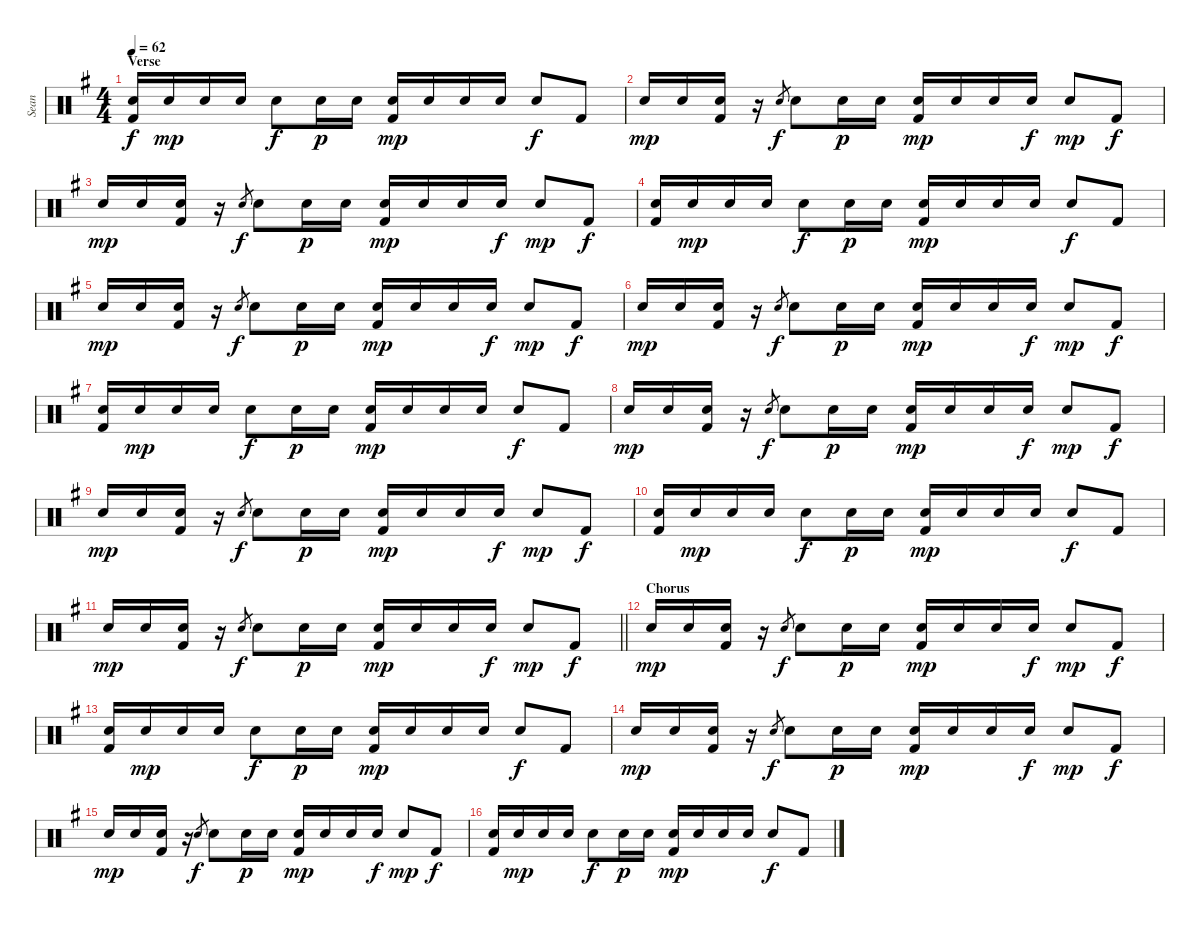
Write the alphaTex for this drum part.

\track ("Sean" "Sean") {instrument percussion}
\staff {score}
\articulation defaults
\ts (4 4)
\section ("" "Verse")
\tempo 62
\clef neutral
\ks eminor
("Electric Snare (hit)" "Kick (hit) 2").16{dy f} "Electric Snare (hit)".16{dy mp} "Electric Snare (hit)".16 "Electric Snare (hit)".16 "Electric Snare (hit)".8{dy f} "Electric Snare (hit)".16{dy p} "Electric Snare (hit)".16 ("Electric Snare (hit)" "Kick (hit) 2").16{dy mp} "Electric Snare (hit)".16 "Electric Snare (hit)".16 "Electric Snare (hit)".16 "Electric Snare (hit)".8{dy f} "Kick (hit) 2".8 |
"Electric Snare (hit)".16{dy mp} "Electric Snare (hit)".16 ("Electric Snare (hit)" "Kick (hit) 2").16 r.16 "Electric Snare (hit)".8{gr dy f} "Electric Snare (hit)".8 "Electric Snare (hit)".16{dy p} "Electric Snare (hit)".16 ("Electric Snare (hit)" "Kick (hit) 2").16{dy mp} "Electric Snare (hit)".16 "Electric Snare (hit)".16 "Electric Snare (hit)".16{dy f} "Electric Snare (hit)".8{dy mp} "Kick (hit) 2".8{dy f} |
"Electric Snare (hit)".16{dy mp} "Electric Snare (hit)".16 ("Electric Snare (hit)" "Kick (hit) 2").16 r.16 "Electric Snare (hit)".8{gr dy f} "Electric Snare (hit)".8 "Electric Snare (hit)".16{dy p} "Electric Snare (hit)".16 ("Electric Snare (hit)" "Kick (hit) 2").16{dy mp} "Electric Snare (hit)".16 "Electric Snare (hit)".16 "Electric Snare (hit)".16{dy f} "Electric Snare (hit)".8{dy mp} "Kick (hit) 2".8{dy f} |
("Electric Snare (hit)" "Kick (hit) 2").16 "Electric Snare (hit)".16{dy mp} "Electric Snare (hit)".16 "Electric Snare (hit)".16 "Electric Snare (hit)".8{dy f} "Electric Snare (hit)".16{dy p} "Electric Snare (hit)".16 ("Electric Snare (hit)" "Kick (hit) 2").16{dy mp} "Electric Snare (hit)".16 "Electric Snare (hit)".16 "Electric Snare (hit)".16 "Electric Snare (hit)".8{dy f} "Kick (hit) 2".8 |
"Electric Snare (hit)".16{dy mp} "Electric Snare (hit)".16 ("Electric Snare (hit)" "Kick (hit) 2").16 r.16 "Electric Snare (hit)".8{gr dy f} "Electric Snare (hit)".8 "Electric Snare (hit)".16{dy p} "Electric Snare (hit)".16 ("Electric Snare (hit)" "Kick (hit) 2").16{dy mp} "Electric Snare (hit)".16 "Electric Snare (hit)".16 "Electric Snare (hit)".16{dy f} "Electric Snare (hit)".8{dy mp} "Kick (hit) 2".8{dy f} |
"Electric Snare (hit)".16{dy mp} "Electric Snare (hit)".16 ("Electric Snare (hit)" "Kick (hit) 2").16 r.16 "Electric Snare (hit)".8{gr dy f} "Electric Snare (hit)".8 "Electric Snare (hit)".16{dy p} "Electric Snare (hit)".16 ("Electric Snare (hit)" "Kick (hit) 2").16{dy mp} "Electric Snare (hit)".16 "Electric Snare (hit)".16 "Electric Snare (hit)".16{dy f} "Electric Snare (hit)".8{dy mp} "Kick (hit) 2".8{dy f} |
("Electric Snare (hit)" "Kick (hit) 2").16 "Electric Snare (hit)".16{dy mp} "Electric Snare (hit)".16 "Electric Snare (hit)".16 "Electric Snare (hit)".8{dy f} "Electric Snare (hit)".16{dy p} "Electric Snare (hit)".16 ("Electric Snare (hit)" "Kick (hit) 2").16{dy mp} "Electric Snare (hit)".16 "Electric Snare (hit)".16 "Electric Snare (hit)".16 "Electric Snare (hit)".8{dy f} "Kick (hit) 2".8 |
"Electric Snare (hit)".16{dy mp} "Electric Snare (hit)".16 ("Electric Snare (hit)" "Kick (hit) 2").16 r.16 "Electric Snare (hit)".8{gr dy f} "Electric Snare (hit)".8 "Electric Snare (hit)".16{dy p} "Electric Snare (hit)".16 ("Electric Snare (hit)" "Kick (hit) 2").16{dy mp} "Electric Snare (hit)".16 "Electric Snare (hit)".16 "Electric Snare (hit)".16{dy f} "Electric Snare (hit)".8{dy mp} "Kick (hit) 2".8{dy f} |
"Electric Snare (hit)".16{dy mp} "Electric Snare (hit)".16 ("Electric Snare (hit)" "Kick (hit) 2").16 r.16 "Electric Snare (hit)".8{gr dy f} "Electric Snare (hit)".8 "Electric Snare (hit)".16{dy p} "Electric Snare (hit)".16 ("Electric Snare (hit)" "Kick (hit) 2").16{dy mp} "Electric Snare (hit)".16 "Electric Snare (hit)".16 "Electric Snare (hit)".16{dy f} "Electric Snare (hit)".8{dy mp} "Kick (hit) 2".8{dy f} |
("Electric Snare (hit)" "Kick (hit) 2").16 "Electric Snare (hit)".16{dy mp} "Electric Snare (hit)".16 "Electric Snare (hit)".16 "Electric Snare (hit)".8{dy f} "Electric Snare (hit)".16{dy p} "Electric Snare (hit)".16 ("Electric Snare (hit)" "Kick (hit) 2").16{dy mp} "Electric Snare (hit)".16 "Electric Snare (hit)".16 "Electric Snare (hit)".16 "Electric Snare (hit)".8{dy f} "Kick (hit) 2".8 |
\barLineRight lightlight "Electric Snare (hit)".16{dy mp} "Electric Snare (hit)".16
("Electric Snare (hit)" "Kick (hit) 2").16 r.16 "Electric Snare (hit)".8{gr dy f} "Electric Snare (hit)".8 "Electric Snare (hit)".16{dy p} "Electric Snare (hit)".16 ("Electric Snare (hit)" "Kick (hit) 2").16{dy mp} "Electric Snare (hit)".16 "Electric Snare (hit)".16 "Electric Snare (hit)".16{dy f} "Electric Snare (hit)".8{dy mp} "Kick (hit) 2".8{dy f} |
\section ("" "Chorus")
"Electric Snare (hit)".16{dy mp} "Electric Snare (hit)".16 ("Electric Snare (hit)" "Kick (hit) 2").16 r.16 "Electric Snare (hit)".8{gr dy f} "Electric Snare (hit)".8 "Electric Snare (hit)".16{dy p} "Electric Snare (hit)".16 ("Electric Snare (hit)" "Kick (hit) 2").16{dy mp} "Electric Snare (hit)".16 "Electric Snare (hit)".16 "Electric Snare (hit)".16{dy f} "Electric Snare (hit)".8{dy mp} "Kick (hit) 2".8{dy f} |
("Electric Snare (hit)" "Kick (hit) 2").16 "Electric Snare (hit)".16{dy mp} "Electric Snare (hit)".16 "Electric Snare (hit)".16 "Electric Snare (hit)".8{dy f} "Electric Snare (hit)".16{dy p} "Electric Snare (hit)".16 ("Electric Snare (hit)" "Kick (hit) 2").16{dy mp} "Electric Snare (hit)".16 "Electric Snare (hit)".16 "Electric Snare (hit)".16 "Electric Snare (hit)".8{dy f} "Kick (hit) 2".8 |
"Electric Snare (hit)".16{dy mp} "Electric Snare (hit)".16 ("Electric Snare (hit)" "Kick (hit) 2").16 r.16 "Electric Snare (hit)".8{gr dy f} "Electric Snare (hit)".8 "Electric Snare (hit)".16{dy p} "Electric Snare (hit)".16 ("Electric Snare (hit)" "Kick (hit) 2").16{dy mp} "Electric Snare (hit)".16 "Electric Snare (hit)".16 "Electric Snare (hit)".16{dy f} "Electric Snare (hit)".8{dy mp} "Kick (hit) 2".8{dy f} |
"Electric Snare (hit)".16{dy mp} "Electric Snare (hit)".16 ("Electric Snare (hit)" "Kick (hit) 2").16 r.16 "Electric Snare (hit)".8{gr dy f} "Electric Snare (hit)".8 "Electric Snare (hit)".16{dy p} "Electric Snare (hit)".16 ("Electric Snare (hit)" "Kick (hit) 2").16{dy mp} "Electric Snare (hit)".16 "Electric Snare (hit)".16 "Electric Snare (hit)".16{dy f} "Electric Snare (hit)".8{dy mp} "Kick (hit) 2".8{dy f} |
("Electric Snare (hit)" "Kick (hit) 2").16 "Electric Snare (hit)".16{dy mp} "Electric Snare (hit)".16 "Electric Snare (hit)".16 "Electric Snare (hit)".8{dy f} "Electric Snare (hit)".16{dy p} "Electric Snare (hit)".16 ("Electric Snare (hit)" "Kick (hit) 2").16{dy mp} "Electric Snare (hit)".16 "Electric Snare (hit)".16 "Electric Snare (hit)".16 "Electric Snare (hit)".8{dy f} "Kick (hit) 2".8
